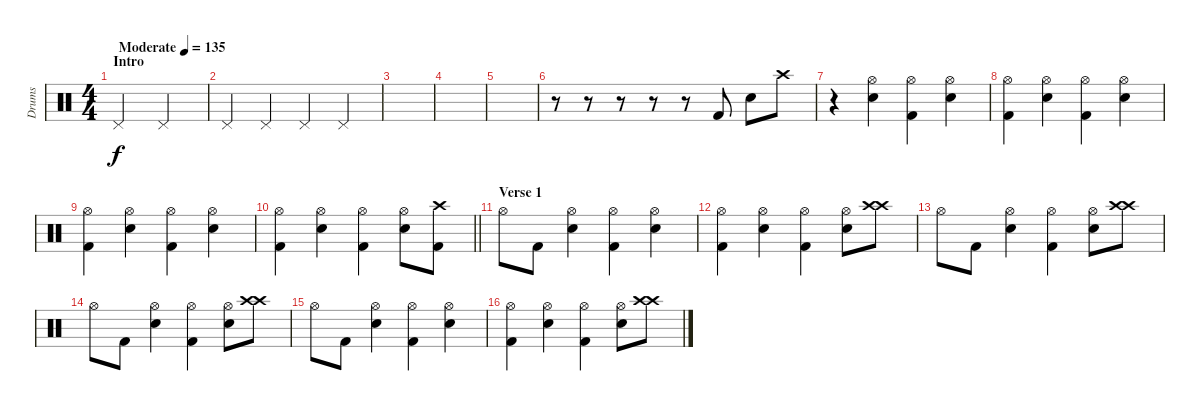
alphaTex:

\track ("Drums" "Drums") {instrument percussion}
\staff {score}
\articulation defaults
\ts (4 4)
\section ("" "Intro")
\tempo (135 "Moderate")
\clef neutral
\ks c "Pedal Hi-Hat (hit)".2{dy f} "Pedal Hi-Hat (hit)".2
|
"Pedal Hi-Hat (hit)".4 "Pedal Hi-Hat (hit)".4 "Pedal Hi-Hat (hit)".4 "Pedal Hi-Hat (hit)".4 |
|
|
|
r.8 r.8 r.8 r.8 r.8 "Kick (hit) 2".8 "Electric Snare (hit)".8 "Crash high (hit)".8 |
r.4 ("Hi-Hat (open)" "Electric Snare (hit)").4 ("Hi-Hat (open)" "Kick (hit) 2").4 ("Hi-Hat (open)" "Electric Snare (hit)").4 |
("Hi-Hat (open)" "Kick (hit) 2").4 ("Hi-Hat (open)" "Electric Snare (hit)").4 ("Hi-Hat (open)" "Kick (hit) 2").4 ("Hi-Hat (open)" "Electric Snare (hit)").4 |
("Hi-Hat (open)" "Kick (hit) 2").4 ("Hi-Hat (open)" "Electric Snare (hit)").4 ("Hi-Hat (open)" "Kick (hit) 2").4 ("Hi-Hat (open)" "Electric Snare (hit)").4 |
\barLineRight lightlight
("Hi-Hat (open)" "Kick (hit) 2").4 ("Hi-Hat (open)" "Electric Snare (hit)").4 ("Hi-Hat (open)" "Kick (hit) 2").4 ("Hi-Hat (open)" "Electric Snare (hit)").8 ("Crash high (hit)" "Kick (hit) 2").8 |
\section ("" "Verse 1")
"Hi-Hat (open)".8 "Kick (hit) 2".8 ("Hi-Hat (open)" "Electric Snare (hit)").4 ("Hi-Hat (open)" "Kick (hit) 2").4 ("Hi-Hat (open)" "Electric Snare (hit)").4 |
("Hi-Hat (open)" "Kick (hit) 2").4 ("Hi-Hat (open)" "Electric Snare (hit)").4 ("Hi-Hat (open)" "Kick (hit) 2").4 ("Hi-Hat (open)" "Electric Snare (hit)").8 ("Crash high (hit)" "Crash high (hit)").8 |
"Hi-Hat (open)".8 "Kick (hit) 2".8 ("Hi-Hat (open)" "Electric Snare (hit)").4 ("Hi-Hat (open)" "Kick (hit) 2").4 ("Hi-Hat (open)" "Electric Snare (hit)").8 ("Crash high (hit)" "Crash high (hit)").8 |
"Hi-Hat (open)".8 "Kick (hit) 2".8 ("Hi-Hat (open)" "Electric Snare (hit)").4 ("Hi-Hat (open)" "Kick (hit) 2").4 ("Hi-Hat (open)" "Electric Snare (hit)").8 ("Crash high (hit)" "Crash high (hit)").8 |
"Hi-Hat (open)".8 "Kick (hit) 2".8 ("Hi-Hat (open)" "Electric Snare (hit)").4 ("Hi-Hat (open)" "Kick (hit) 2").4 ("Hi-Hat (open)" "Electric Snare (hit)").4 |
("Hi-Hat (open)" "Kick (hit) 2").4 ("Hi-Hat (open)" "Electric Snare (hit)").4 ("Hi-Hat (open)" "Kick (hit) 2").4 ("Hi-Hat (open)" "Electric Snare (hit)").8 ("Crash high (hit)" "Crash high (hit)").8
